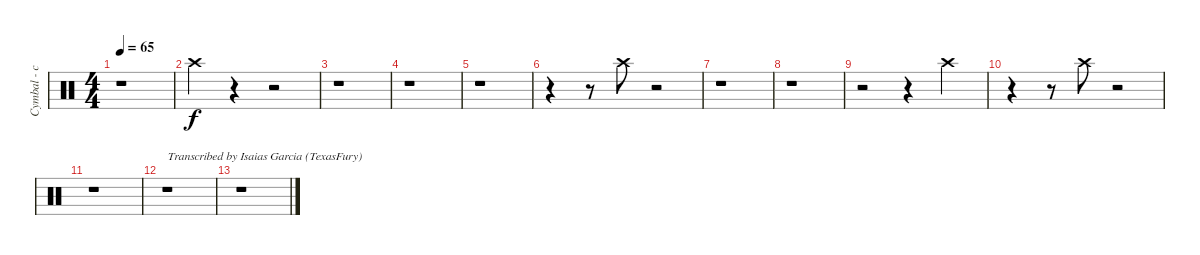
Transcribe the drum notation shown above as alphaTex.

\track ("Cymbal - crash - left" "Cymbal - c") {instrument percussion}
\staff {score}
\articulation defaults
\ts (4 4)
\tempo 65
\clef neutral
\ks c
r.1{dy f} |
"Crash high (hit)".4 r.4 r.2 |
r.1 |
r.1 |
r.1 |
r.4{beam merge} r.8 "Crash high (hit)".8 r.2 |
r.1 |
r.1 |
r.2 r.4 "Crash high (hit)".4 |
r.4 r.8 "Crash high (hit)".8 r.2 |
r.1 |
r.1{txt "Transcribed by Isaias Garcia (TexasFury)"} |
r.1
